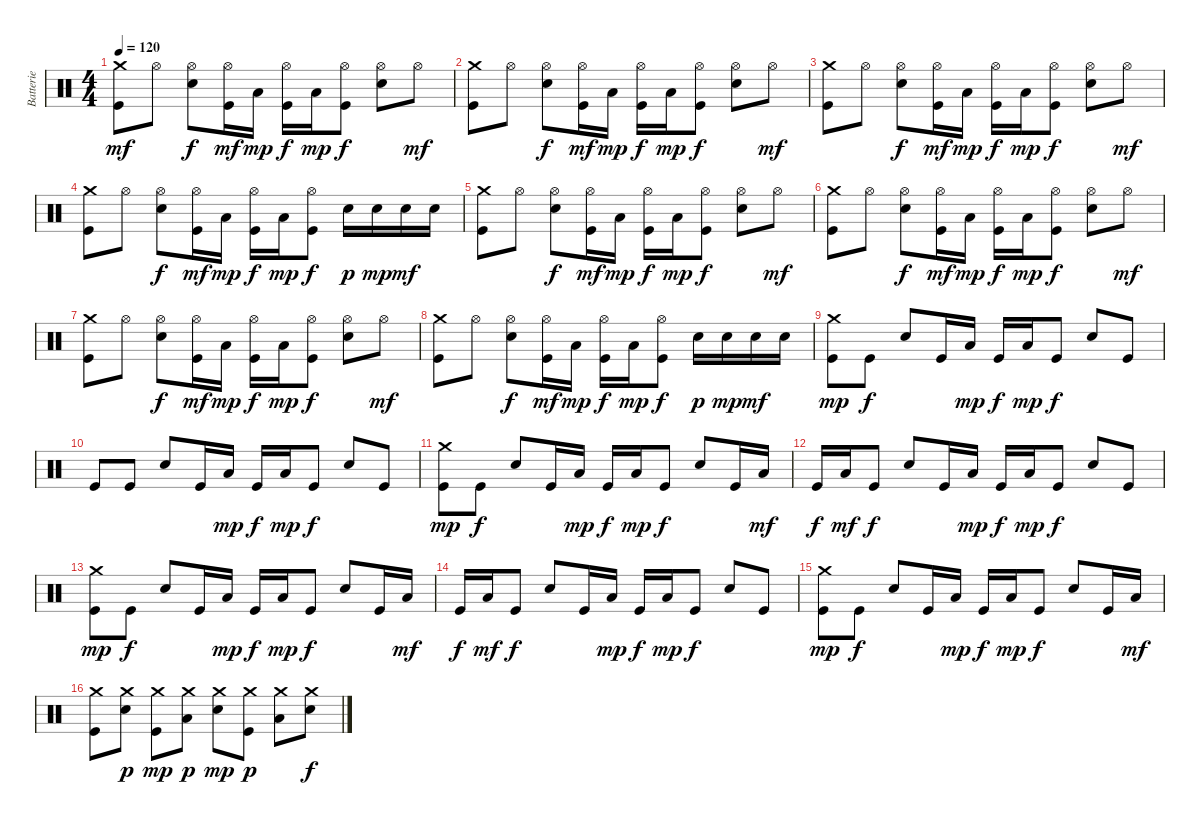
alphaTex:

\track ("Batterie" "Batterie") {instrument percussion}
\staff {score}
\articulation defaults
\ts (4 4)
\tempo 120
\clef neutral
\ks c
("Crash medium (hit)" "Kick (hit)").8{dy mf} "Hi-Hat (open)".8 ("Hi-Hat (open)" "Snare (hit) 2").8{dy f} ("Hi-Hat (open)" "Kick (hit)").16{dy mf} "Low Tom (hit)".16{dy mp} ("Hi-Hat (open)" "Kick (hit)").16{dy f} "Low Tom (hit)".16{dy mp} ("Hi-Hat (open)" "Kick (hit)").8{dy f} ("Hi-Hat (open)" "Snare (hit) 2").8 "Hi-Hat (open)".8{dy mf} |
("Crash medium (hit)" "Kick (hit)").8 "Hi-Hat (open)".8 ("Hi-Hat (open)" "Snare (hit) 2").8{dy f} ("Hi-Hat (open)" "Kick (hit)").16{dy mf} "Low Tom (hit)".16{dy mp} ("Hi-Hat (open)" "Kick (hit)").16{dy f} "Low Tom (hit)".16{dy mp} ("Hi-Hat (open)" "Kick (hit)").8{dy f} ("Hi-Hat (open)" "Snare (hit) 2").8 "Hi-Hat (open)".8{dy mf} |
("Crash medium (hit)" "Kick (hit)").8 "Hi-Hat (open)".8 ("Hi-Hat (open)" "Snare (hit) 2").8{dy f} ("Hi-Hat (open)" "Kick (hit)").16{dy mf} "Low Tom (hit)".16{dy mp} ("Hi-Hat (open)" "Kick (hit)").16{dy f} "Low Tom (hit)".16{dy mp} ("Hi-Hat (open)" "Kick (hit)").8{dy f} ("Hi-Hat (open)" "Snare (hit) 2").8 "Hi-Hat (open)".8{dy mf} |
("Crash medium (hit)" "Kick (hit)").8 "Hi-Hat (open)".8 ("Hi-Hat (open)" "Snare (hit) 2").8{dy f} ("Hi-Hat (open)" "Kick (hit)").16{dy mf} "Low Tom (hit)".16{dy mp} ("Hi-Hat (open)" "Kick (hit)").16{dy f} "Low Tom (hit)".16{dy mp} ("Hi-Hat (open)" "Kick (hit)").8{dy f} "Snare (hit) 2".16{dy p} "Snare (hit) 2".16{dy mp} "Snare (hit) 2".16{dy mf} "Snare (hit) 2".16 |
("Crash medium (hit)" "Kick (hit)").8 "Hi-Hat (open)".8 ("Hi-Hat (open)" "Snare (hit) 2").8{dy f} ("Hi-Hat (open)" "Kick (hit)").16{dy mf} "Low Tom (hit)".16{dy mp} ("Hi-Hat (open)" "Kick (hit)").16{dy f} "Low Tom (hit)".16{dy mp} ("Hi-Hat (open)" "Kick (hit)").8{dy f} ("Hi-Hat (open)" "Snare (hit) 2").8 "Hi-Hat (open)".8{dy mf} |
("Crash medium (hit)" "Kick (hit)").8 "Hi-Hat (open)".8 ("Hi-Hat (open)" "Snare (hit) 2").8{dy f} ("Hi-Hat (open)" "Kick (hit)").16{dy mf} "Low Tom (hit)".16{dy mp} ("Hi-Hat (open)" "Kick (hit)").16{dy f} "Low Tom (hit)".16{dy mp} ("Hi-Hat (open)" "Kick (hit)").8{dy f} ("Hi-Hat (open)" "Snare (hit) 2").8 "Hi-Hat (open)".8{dy mf} |
("Crash medium (hit)" "Kick (hit)").8 "Hi-Hat (open)".8 ("Hi-Hat (open)" "Snare (hit) 2").8{dy f} ("Hi-Hat (open)" "Kick (hit)").16{dy mf} "Low Tom (hit)".16{dy mp} ("Hi-Hat (open)" "Kick (hit)").16{dy f} "Low Tom (hit)".16{dy mp} ("Hi-Hat (open)" "Kick (hit)").8{dy f} ("Hi-Hat (open)" "Snare (hit) 2").8 "Hi-Hat (open)".8{dy mf} |
("Crash medium (hit)" "Kick (hit)").8 "Hi-Hat (open)".8 ("Hi-Hat (open)" "Snare (hit) 2").8{dy f} ("Hi-Hat (open)" "Kick (hit)").16{dy mf} "Low Tom (hit)".16{dy mp} ("Hi-Hat (open)" "Kick (hit)").16{dy f} "Low Tom (hit)".16{dy mp} ("Hi-Hat (open)" "Kick (hit)").8{dy f} "Snare (hit) 2".16{dy p} "Snare (hit) 2".16{dy mp} "Snare (hit) 2".16{dy mf} "Snare (hit) 2".16 |
("Crash medium (hit)" "Kick (hit)").8{dy mp} "Kick (hit)".8{dy f} "Snare (hit) 2".8 "Kick (hit)".16 "Low Tom (hit)".16{dy mp} "Kick (hit)".16{dy f} "Low Tom (hit)".16{dy mp} "Kick (hit)".8{dy f} "Snare (hit) 2".8 "Kick (hit)".8 |
"Kick (hit)".8 "Kick (hit)".8 "Snare (hit) 2".8 "Kick (hit)".16 "Low Tom (hit)".16{dy mp} "Kick (hit)".16{dy f} "Low Tom (hit)".16{dy mp} "Kick (hit)".8{dy f} "Snare (hit) 2".8 "Kick (hit)".8 |
("Crash medium (hit)" "Kick (hit)").8{dy mp} "Kick (hit)".8{dy f} "Snare (hit) 2".8 "Kick (hit)".16 "Low Tom (hit)".16{dy mp} "Kick (hit)".16{dy f} "Low Tom (hit)".16{dy mp} "Kick (hit)".8{dy f} "Snare (hit) 2".8 "Kick (hit)".16 "Low Tom (hit)".16{dy mf} |
"Kick (hit)".16{dy f} "Low Tom (hit)".16{dy mf} "Kick (hit)".8{dy f} "Snare (hit) 2".8 "Kick (hit)".16 "Low Tom (hit)".16{dy mp} "Kick (hit)".16{dy f} "Low Tom (hit)".16{dy mp} "Kick (hit)".8{dy f} "Snare (hit) 2".8 "Kick (hit)".8 |
("Crash medium (hit)" "Kick (hit)").8{dy mp} "Kick (hit)".8{dy f} "Snare (hit) 2".8 "Kick (hit)".16 "Low Tom (hit)".16{dy mp} "Kick (hit)".16{dy f} "Low Tom (hit)".16{dy mp} "Kick (hit)".8{dy f} "Snare (hit) 2".8 "Kick (hit)".16 "Low Tom (hit)".16{dy mf} |
"Kick (hit)".16{dy f} "Low Tom (hit)".16{dy mf} "Kick (hit)".8{dy f} "Snare (hit) 2".8 "Kick (hit)".16 "Low Tom (hit)".16{dy mp} "Kick (hit)".16{dy f} "Low Tom (hit)".16{dy mp} "Kick (hit)".8{dy f} "Snare (hit) 2".8 "Kick (hit)".8 |
("Crash medium (hit)" "Kick (hit)").8{dy mp} "Kick (hit)".8{dy f} "Snare (hit) 2".8 "Kick (hit)".16 "Low Tom (hit)".16{dy mp} "Kick (hit)".16{dy f} "Low Tom (hit)".16{dy mp} "Kick (hit)".8{dy f} "Snare (hit) 2".8 "Kick (hit)".16 "Low Tom (hit)".16{dy mf} |
("Crash medium (hit)" "Kick (hit)").8 ("Crash medium (hit)" "Snare (hit) 2").8{dy p} ("Crash medium (hit)" "Kick (hit)").8{dy mp} ("Crash medium (hit)" "Low Tom (hit)").8{dy p} ("Crash medium (hit)" "Snare (hit) 2").8{dy mp} ("Crash medium (hit)" "Kick (hit)").8{dy p} ("Crash medium (hit)" "Low Tom (hit)").8 ("Crash medium (hit)" "Snare (hit) 2").8{dy f}
